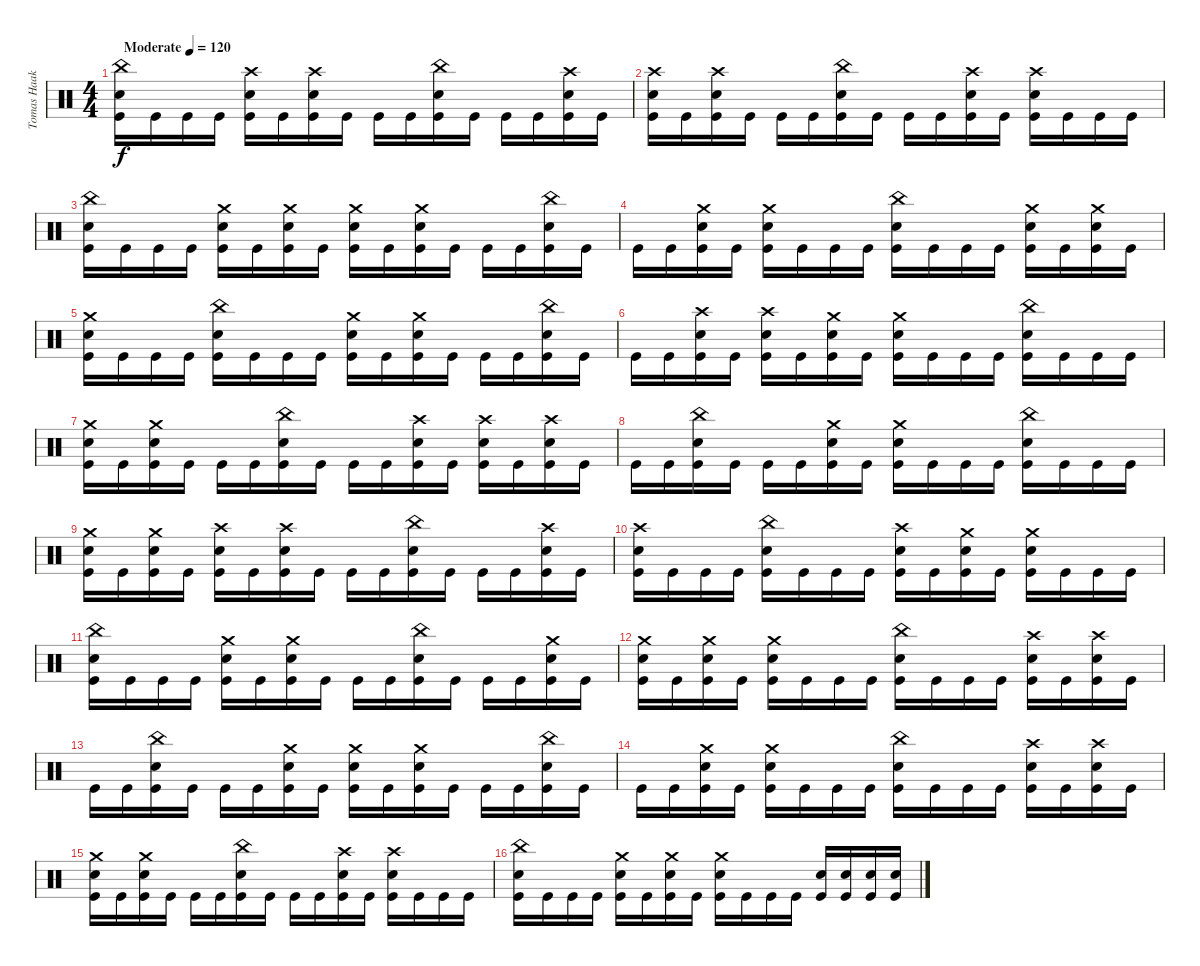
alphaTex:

\track ("Tomas Haake" "Tomas Haak") {instrument percussion}
\staff {score}
\articulation defaults
\ts (4 4)
\tempo (120 "Moderate")
\clef neutral
\ks c
("China (hit)" "Electric Snare (hit)" "Kick (hit)").16{dy f} "Kick (hit)".16 "Kick (hit)".16 "Kick (hit)".16 ("Crash high (hit)" "Electric Snare (hit)" "Kick (hit)").16 "Kick (hit)".16 ("Crash high (hit)" "Electric Snare (hit)" "Kick (hit)").16 "Kick (hit)".16 "Kick (hit)".16 "Kick (hit)".16 ("China (hit)" "Electric Snare (hit)" "Kick (hit)").16 "Kick (hit)".16 "Kick (hit)".16 "Kick (hit)".16 ("Crash high (hit)" "Electric Snare (hit)" "Kick (hit)").16 "Kick (hit)".16 |
("Crash high (hit)" "Electric Snare (hit)" "Kick (hit)").16 "Kick (hit)".16 ("Crash high (hit)" "Electric Snare (hit)" "Kick (hit)").16 "Kick (hit)".16 "Kick (hit)".16 "Kick (hit)".16 ("China (hit)" "Electric Snare (hit)" "Kick (hit)").16 "Kick (hit)".16 "Kick (hit)".16 "Kick (hit)".16 ("Crash high (hit)" "Electric Snare (hit)" "Kick (hit)").16 "Kick (hit)".16 ("Crash high (hit)" "Electric Snare (hit)" "Kick (hit)").16 "Kick (hit)".16 "Kick (hit)".16 "Kick (hit)".16 |
("China (hit)" "Electric Snare (hit)" "Kick (hit)").16 "Kick (hit)".16 "Kick (hit)".16 "Kick (hit)".16 ("Crash medium (hit)" "Electric Snare (hit)" "Kick (hit)").16 "Kick (hit)".16 ("Crash medium (hit)" "Electric Snare (hit)" "Kick (hit)").16 "Kick (hit)".16 ("Crash medium (hit)" "Electric Snare (hit)" "Kick (hit)").16 "Kick (hit)".16 ("Crash medium (hit)" "Electric Snare (hit)" "Kick (hit)").16 "Kick (hit)".16 "Kick (hit)".16 "Kick (hit)".16 ("China (hit)" "Electric Snare (hit)" "Kick (hit)").16 "Kick (hit)".16 |
"Kick (hit)".16 "Kick (hit)".16 ("Crash medium (hit)" "Electric Snare (hit)" "Kick (hit)").16 "Kick (hit)".16 ("Crash medium (hit)" "Electric Snare (hit)" "Kick (hit)").16 "Kick (hit)".16 "Kick (hit)".16 "Kick (hit)".16 ("China (hit)" "Electric Snare (hit)" "Kick (hit)").16 "Kick (hit)".16 "Kick (hit)".16 "Kick (hit)".16 ("Crash medium (hit)" "Electric Snare (hit)" "Kick (hit)").16 "Kick (hit)".16 ("Crash medium (hit)" "Electric Snare (hit)" "Kick (hit)").16 "Kick (hit)".16 |
("Crash medium (hit)" "Electric Snare (hit)" "Kick (hit)").16 "Kick (hit)".16 "Kick (hit)".16 "Kick (hit)".16 ("China (hit)" "Electric Snare (hit)" "Kick (hit)").16 "Kick (hit)".16 "Kick (hit)".16 "Kick (hit)".16 ("Crash medium (hit)" "Electric Snare (hit)" "Kick (hit)").16 "Kick (hit)".16 ("Crash medium (hit)" "Electric Snare (hit)" "Kick (hit)").16 "Kick (hit)".16 "Kick (hit)".16 "Kick (hit)".16 ("China (hit)" "Electric Snare (hit)" "Kick (hit)").16 "Kick (hit)".16 |
"Kick (hit)".16 "Kick (hit)".16 ("Crash high (hit)" "Electric Snare (hit)" "Kick (hit)").16 "Kick (hit)".16 ("Crash high (hit)" "Electric Snare (hit)" "Kick (hit)").16 "Kick (hit)".16 ("Crash medium (hit)" "Electric Snare (hit)" "Kick (hit)").16 "Kick (hit)".16 ("Crash medium (hit)" "Electric Snare (hit)" "Kick (hit)").16 "Kick (hit)".16 "Kick (hit)".16 "Kick (hit)".16 ("China (hit)" "Electric Snare (hit)" "Kick (hit)").16 "Kick (hit)".16 "Kick (hit)".16 "Kick (hit)".16 |
("Crash medium (hit)" "Electric Snare (hit)" "Kick (hit)").16 "Kick (hit)".16 ("Crash medium (hit)" "Electric Snare (hit)" "Kick (hit)").16 "Kick (hit)".16 "Kick (hit)".16 "Kick (hit)".16 ("China (hit)" "Electric Snare (hit)" "Kick (hit)").16 "Kick (hit)".16 "Kick (hit)".16 "Kick (hit)".16 ("Crash high (hit)" "Electric Snare (hit)" "Kick (hit)").16 "Kick (hit)".16 ("Crash high (hit)" "Electric Snare (hit)" "Kick (hit)").16 "Kick (hit)".16 ("Crash high (hit)" "Electric Snare (hit)" "Kick (hit)").16 "Kick (hit)".16 |
"Kick (hit)".16 "Kick (hit)".16 ("China (hit)" "Electric Snare (hit)" "Kick (hit)").16 "Kick (hit)".16 "Kick (hit)".16 "Kick (hit)".16 ("Crash medium (hit)" "Electric Snare (hit)" "Kick (hit)").16 "Kick (hit)".16 ("Crash medium (hit)" "Electric Snare (hit)" "Kick (hit)").16 "Kick (hit)".16 "Kick (hit)".16 "Kick (hit)".16 ("China (hit)" "Electric Snare (hit)" "Kick (hit)").16 "Kick (hit)".16 "Kick (hit)".16 "Kick (hit)".16 |
("Crash medium (hit)" "Electric Snare (hit)" "Kick (hit)").16 "Kick (hit)".16 ("Crash medium (hit)" "Electric Snare (hit)" "Kick (hit)").16 "Kick (hit)".16 ("Crash high (hit)" "Electric Snare (hit)" "Kick (hit)").16 "Kick (hit)".16 ("Crash high (hit)" "Electric Snare (hit)" "Kick (hit)").16 "Kick (hit)".16 "Kick (hit)".16 "Kick (hit)".16 ("China (hit)" "Electric Snare (hit)" "Kick (hit)").16 "Kick (hit)".16 "Kick (hit)".16 "Kick (hit)".16 ("Crash high (hit)" "Electric Snare (hit)" "Kick (hit)").16 "Kick (hit)".16 |
("Crash high (hit)" "Electric Snare (hit)" "Kick (hit)").16 "Kick (hit)".16 "Kick (hit)".16 "Kick (hit)".16 ("China (hit)" "Electric Snare (hit)" "Kick (hit)").16 "Kick (hit)".16 "Kick (hit)".16 "Kick (hit)".16 ("Crash high (hit)" "Electric Snare (hit)" "Kick (hit)").16 "Kick (hit)".16 ("Crash medium (hit)" "Electric Snare (hit)" "Kick (hit)").16 "Kick (hit)".16 ("Crash medium (hit)" "Electric Snare (hit)" "Kick (hit)").16 "Kick (hit)".16 "Kick (hit)".16 "Kick (hit)".16 |
("China (hit)" "Electric Snare (hit)" "Kick (hit)").16 "Kick (hit)".16 "Kick (hit)".16 "Kick (hit)".16 ("Crash medium (hit)" "Electric Snare (hit)" "Kick (hit)").16 "Kick (hit)".16 ("Crash medium (hit)" "Electric Snare (hit)" "Kick (hit)").16 "Kick (hit)".16 "Kick (hit)".16 "Kick (hit)".16 ("China (hit)" "Electric Snare (hit)" "Kick (hit)").16 "Kick (hit)".16 "Kick (hit)".16 "Kick (hit)".16 ("Crash medium (hit)" "Electric Snare (hit)" "Kick (hit)").16 "Kick (hit)".16 |
("Crash medium (hit)" "Electric Snare (hit)" "Kick (hit)").16 "Kick (hit)".16 ("Crash medium (hit)" "Electric Snare (hit)" "Kick (hit)").16 "Kick (hit)".16 ("Crash medium (hit)" "Electric Snare (hit)" "Kick (hit)").16 "Kick (hit)".16 "Kick (hit)".16 "Kick (hit)".16 ("China (hit)" "Electric Snare (hit)" "Kick (hit)").16 "Kick (hit)".16 "Kick (hit)".16 "Kick (hit)".16 ("Crash high (hit)" "Electric Snare (hit)" "Kick (hit)").16 "Kick (hit)".16 ("Crash high (hit)" "Electric Snare (hit)" "Kick (hit)").16 "Kick (hit)".16 |
"Kick (hit)".16 "Kick (hit)".16 ("China (hit)" "Electric Snare (hit)" "Kick (hit)").16 "Kick (hit)".16 "Kick (hit)".16 "Kick (hit)".16 ("Crash medium (hit)" "Electric Snare (hit)" "Kick (hit)").16 "Kick (hit)".16 ("Crash medium (hit)" "Electric Snare (hit)" "Kick (hit)").16 "Kick (hit)".16 ("Crash medium (hit)" "Electric Snare (hit)" "Kick (hit)").16 "Kick (hit)".16 "Kick (hit)".16 "Kick (hit)".16 ("China (hit)" "Electric Snare (hit)" "Kick (hit)").16 "Kick (hit)".16 |
"Kick (hit)".16 "Kick (hit)".16 ("Crash medium (hit)" "Electric Snare (hit)" "Kick (hit)").16 "Kick (hit)".16 ("Crash medium (hit)" "Electric Snare (hit)" "Kick (hit)").16 "Kick (hit)".16 "Kick (hit)".16 "Kick (hit)".16 ("China (hit)" "Electric Snare (hit)" "Kick (hit)").16 "Kick (hit)".16 "Kick (hit)".16 "Kick (hit)".16 ("Crash high (hit)" "Electric Snare (hit)" "Kick (hit)").16 "Kick (hit)".16 ("Crash high (hit)" "Electric Snare (hit)" "Kick (hit)").16 "Kick (hit)".16 |
("Crash medium (hit)" "Electric Snare (hit)" "Kick (hit)").16 "Kick (hit)".16 ("Crash medium (hit)" "Electric Snare (hit)" "Kick (hit)").16 "Kick (hit)".16 "Kick (hit)".16 "Kick (hit)".16 ("China (hit)" "Electric Snare (hit)" "Kick (hit)").16 "Kick (hit)".16 "Kick (hit)".16 "Kick (hit)".16 ("Crash high (hit)" "Electric Snare (hit)" "Kick (hit)").16 "Kick (hit)".16 ("Crash high (hit)" "Electric Snare (hit)" "Kick (hit)").16 "Kick (hit)".16 "Kick (hit)".16 "Kick (hit)".16 |
("China (hit)" "Electric Snare (hit)" "Kick (hit)").16 "Kick (hit)".16 "Kick (hit)".16 "Kick (hit)".16 ("Crash medium (hit)" "Electric Snare (hit)" "Kick (hit)").16 "Kick (hit)".16 ("Crash medium (hit)" "Electric Snare (hit)" "Kick (hit)").16 "Kick (hit)".16 ("Crash medium (hit)" "Electric Snare (hit)" "Kick (hit)").16 "Kick (hit)".16 "Kick (hit)".16 "Kick (hit)".16 ("Electric Snare (hit)" "Kick (hit)").16 ("Electric Snare (hit)" "Kick (hit)").16 ("Electric Snare (hit)" "Kick (hit)").16 ("Electric Snare (hit)" "Kick (hit)").16
